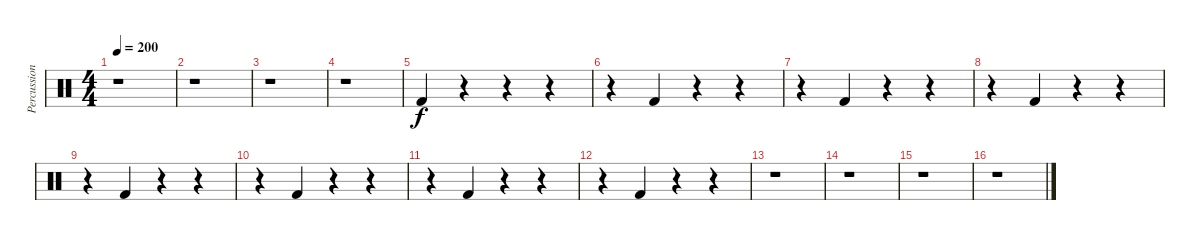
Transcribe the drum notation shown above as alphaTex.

\track ("Percussion" "Percussion") {instrument percussion}
\staff {score}
\articulation defaults
\ts (4 4)
\tempo 200
\clef neutral
\ks c
r.1{dy f} |
r.1 |
r.1 |
r.1 |
"Kick (hit) 2".4 r.4 r.4 r.4 |
r.4 "Kick (hit) 2".4 r.4 r.4 |
r.4 "Kick (hit) 2".4 r.4 r.4 |
r.4 "Kick (hit) 2".4 r.4 r.4 |
r.4 "Kick (hit) 2".4 r.4 r.4 |
r.4 "Kick (hit) 2".4 r.4 r.4 |
r.4 "Kick (hit) 2".4 r.4 r.4 |
r.4 "Kick (hit) 2".4 r.4 r.4 |
r.1 |
r.1 |
r.1 |
r.1
